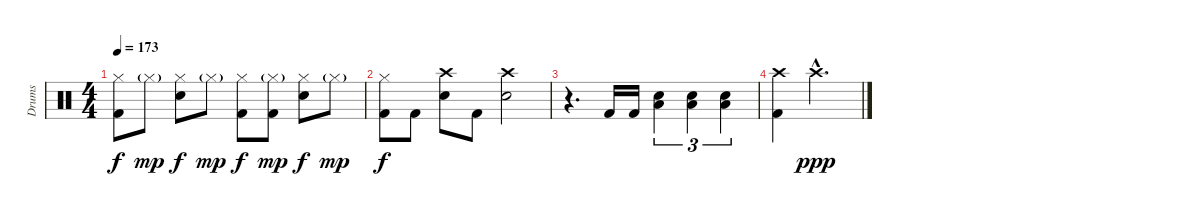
\track ("Drums" "Drums") {instrument percussion}
\staff {score}
\articulation defaults
\ts (4 4)
\tempo 173
\clef neutral
\ks c
("Hi-Hat (closed)" "Kick (hit) 2").8{dy f} "Hi-Hat (closed)"{g}.8{dy mp} ("Hi-Hat (closed)" "Electric Snare (hit)").8{dy f} "Hi-Hat (closed)"{g}.8{dy mp} ("Hi-Hat (closed)" "Kick (hit) 2").8{dy f} ("Hi-Hat (closed)"{g} "Kick (hit) 2").8{dy mp} ("Hi-Hat (closed)" "Electric Snare (hit)").8{dy f} "Hi-Hat (closed)"{g}.8{dy mp} |
("Hi-Hat (closed)" "Kick (hit) 2").8{dy f} "Kick (hit) 2".8 ("Crash high (hit)" "Electric Snare (hit)").8 "Kick (hit) 2".8 ("Crash high (hit)" "Electric Snare (hit)").2 |
r.4{d} "Kick (hit) 2".16 "Kick (hit) 2".16 ("Electric Snare (hit)" "Low Tom (hit)").4{tu (3 2)} ("Electric Snare (hit)" "Low Tom (hit)").4{tu (3 2)} ("Electric Snare (hit)" "Low Tom (hit)").4{tu (3 2)} |
("Crash high (hit)" "Kick (hit) 2").4 "Crash high (hit)"{hac}.2{d dy ppp}
